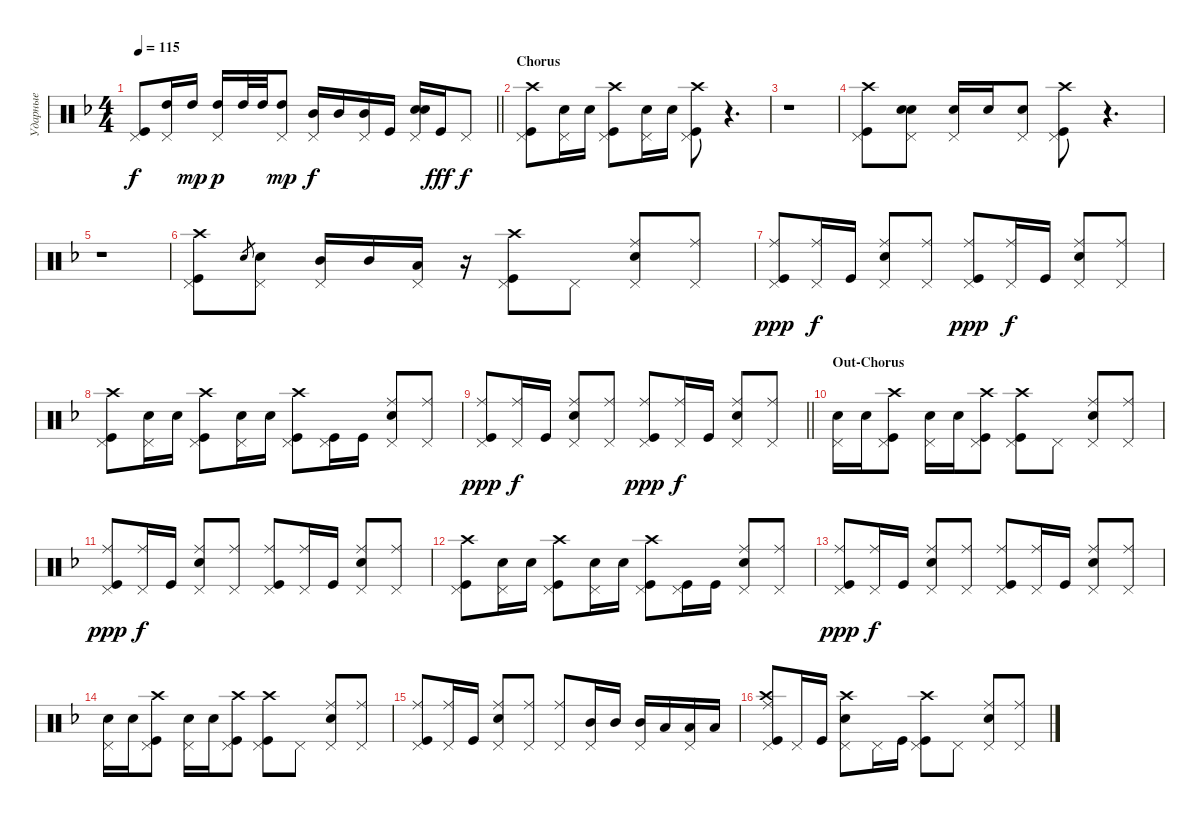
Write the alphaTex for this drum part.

\track ("Ударные" "Ударные") {instrument percussion}
\staff {score}
\articulation defaults
\ts (4 4)
\tempo 115
\clef neutral
\barLineRight lightlight
\ks dminor
("Pedal Hi-Hat (hit)" "Kick (hit)").8{dy f} ("Pedal Hi-Hat (hit)" "High Tom (hit)").16 "High Tom (hit)".16{dy mp} ("Pedal Hi-Hat (hit)" "High Tom (hit)").16{dy p} "High Tom (hit)".32 "High Tom (hit)".32 ("High Tom (hit)" "Pedal Hi-Hat (hit)").8{dy mp} ("Pedal Hi-Hat (hit)" "Mid Tom (hit)").16{dy f} "Mid Tom (hit)".16 ("Mid Tom (hit)" "Pedal Hi-Hat (hit)").16 "Kick (hit)".16 ("Snare (hit) 2" "Snare (hit) 2" "Pedal Hi-Hat (hit)").16{bd 480} "Kick (hit)".16{dy fff} "Pedal Hi-Hat (hit)".8{dy f} |
\section ("" "Chorus")
("Kick (hit)" "Crash high (hit)" "Pedal Hi-Hat (hit)").8 ("Snare (hit) 2" "Pedal Hi-Hat (hit)").16 "Snare (hit) 2".16 ("Kick (hit)" "Crash high (hit)" "Pedal Hi-Hat (hit)").8 ("Snare (hit) 2" "Pedal Hi-Hat (hit)").16 "Snare (hit) 2".16 ("Kick (hit)" "Crash high (hit)" "Pedal Hi-Hat (hit)").8 r.4{d} |
r.1 |
("Pedal Hi-Hat (hit)" "Crash high (hit)" "Kick (hit)").8 ("Pedal Hi-Hat (hit)" "Snare (hit) 2" "Snare (hit) 2").8{bd 480} ("Snare (hit) 2" "Pedal Hi-Hat (hit)").16 "Snare (hit) 2".16 ("Pedal Hi-Hat (hit)" "Snare (hit) 2").8 ("Kick (hit)" "Crash high (hit)" "Pedal Hi-Hat (hit)").8 r.4{d} |
r.1 |
("Kick (hit)" "Crash high (hit)" "Pedal Hi-Hat (hit)").8 "Snare (hit) 2".8{gr} ("Pedal Hi-Hat (hit)" "Snare (hit) 2").8 ("Pedal Hi-Hat (hit)" "Mid Tom (hit)").16 "Mid Tom (hit)".16 ("Low Tom (hit)" "Pedal Hi-Hat (hit)").16 r.16 ("Kick (hit)" "Crash high (hit)" "Pedal Hi-Hat (hit)").8 "Pedal Hi-Hat (hit)".8 ("Snare (hit) 2" "Pedal Hi-Hat (hit)" "Ride (middle)").8 ("Pedal Hi-Hat (hit)" "Ride (middle)").8 |
("Kick (hit)" "Pedal Hi-Hat (hit)" "Ride (middle)").8{dy ppp} ("Ride (middle)" "Pedal Hi-Hat (hit)").16{dy f} "Kick (hit)".16 ("Pedal Hi-Hat (hit)" "Snare (hit) 2" "Ride (middle)").8 ("Ride (middle)" "Pedal Hi-Hat (hit)").8 ("Kick (hit)" "Pedal Hi-Hat (hit)" "Ride (middle)").8{dy ppp} ("Ride (middle)" "Pedal Hi-Hat (hit)").16{dy f} "Kick (hit)".16 ("Pedal Hi-Hat (hit)" "Snare (hit) 2" "Ride (middle)").8 ("Ride (middle)" "Pedal Hi-Hat (hit)").8 |
("Kick (hit)" "Crash high (hit)" "Pedal Hi-Hat (hit)").8 ("Snare (hit) 2" "Pedal Hi-Hat (hit)").16 "Snare (hit) 2".16 ("Kick (hit)" "Crash high (hit)" "Pedal Hi-Hat (hit)").8 ("Snare (hit) 2" "Pedal Hi-Hat (hit)").16 "Snare (hit) 2".16 ("Kick (hit)" "Crash high (hit)" "Pedal Hi-Hat (hit)").8 ("Pedal Hi-Hat (hit)" "Kick (hit)").16 "Kick (hit)".16 ("Snare (hit) 2" "Pedal Hi-Hat (hit)" "Ride (middle)").8 ("Pedal Hi-Hat (hit)" "Ride (middle)").8 |
\barLineRight lightlight
("Kick (hit)" "Pedal Hi-Hat (hit)" "Ride (middle)").8{dy ppp} ("Ride (middle)" "Pedal Hi-Hat (hit)").16{dy f} "Kick (hit)".16 ("Pedal Hi-Hat (hit)" "Snare (hit) 2" "Ride (middle)").8 ("Ride (middle)" "Pedal Hi-Hat (hit)").8 ("Kick (hit)" "Pedal Hi-Hat (hit)" "Ride (middle)").8{dy ppp} ("Ride (middle)" "Pedal Hi-Hat (hit)").16{dy f} "Kick (hit)".16 ("Pedal Hi-Hat (hit)" "Snare (hit) 2" "Ride (middle)").8 ("Ride (middle)" "Pedal Hi-Hat (hit)").8 |
\section ("" "Out-Chorus")
("Snare (hit) 2" "Pedal Hi-Hat (hit)").16 "Snare (hit) 2".16 ("Kick (hit)" "Crash high (hit)" "Pedal Hi-Hat (hit)").8 ("Snare (hit) 2" "Pedal Hi-Hat (hit)").16 "Snare (hit) 2".16 ("Kick (hit)" "Crash high (hit)" "Pedal Hi-Hat (hit)").8 ("Kick (hit)" "Crash high (hit)" "Pedal Hi-Hat (hit)").8 "Pedal Hi-Hat (hit)".8 ("Snare (hit) 2" "Pedal Hi-Hat (hit)" "Ride (middle)").8 ("Ride (middle)" "Pedal Hi-Hat (hit)").8 |
("Kick (hit)" "Pedal Hi-Hat (hit)" "Ride (middle)").8{dy ppp} ("Ride (middle)" "Pedal Hi-Hat (hit)").16{dy f} "Kick (hit)".16 ("Pedal Hi-Hat (hit)" "Snare (hit) 2" "Ride (middle)").8 ("Ride (middle)" "Pedal Hi-Hat (hit)").8 ("Pedal Hi-Hat (hit)" "Kick (hit)" "Ride (middle)").8 ("Ride (middle)" "Pedal Hi-Hat (hit)").16 "Kick (hit)".16 ("Pedal Hi-Hat (hit)" "Snare (hit) 2" "Ride (middle)").8 ("Pedal Hi-Hat (hit)" "Ride (middle)").8 |
("Kick (hit)" "Crash high (hit)" "Pedal Hi-Hat (hit)").8 ("Snare (hit) 2" "Pedal Hi-Hat (hit)").16 "Snare (hit) 2".16 ("Kick (hit)" "Crash high (hit)" "Pedal Hi-Hat (hit)").8 ("Snare (hit) 2" "Pedal Hi-Hat (hit)").16 "Snare (hit) 2".16 ("Kick (hit)" "Crash high (hit)" "Pedal Hi-Hat (hit)").8 ("Pedal Hi-Hat (hit)" "Kick (hit)").16 "Kick (hit)".16 ("Snare (hit) 2" "Pedal Hi-Hat (hit)" "Ride (middle)").8 ("Pedal Hi-Hat (hit)" "Ride (middle)").8 |
("Kick (hit)" "Pedal Hi-Hat (hit)" "Ride (middle)").8{dy ppp} ("Ride (middle)" "Pedal Hi-Hat (hit)").16{dy f} "Kick (hit)".16 ("Pedal Hi-Hat (hit)" "Snare (hit) 2" "Ride (middle)").8 ("Ride (middle)" "Pedal Hi-Hat (hit)").8 ("Pedal Hi-Hat (hit)" "Kick (hit)" "Ride (middle)").8 ("Ride (middle)" "Pedal Hi-Hat (hit)").16 "Kick (hit)".16 ("Pedal Hi-Hat (hit)" "Snare (hit) 2" "Ride (middle)").8 ("Pedal Hi-Hat (hit)" "Ride (middle)").8 |
("Snare (hit) 2" "Pedal Hi-Hat (hit)").16 "Snare (hit) 2".16 ("Kick (hit)" "Crash high (hit)" "Pedal Hi-Hat (hit)").8 ("Snare (hit) 2" "Pedal Hi-Hat (hit)").16 "Snare (hit) 2".16 ("Kick (hit)" "Crash high (hit)" "Pedal Hi-Hat (hit)").8 ("Kick (hit)" "Crash high (hit)" "Pedal Hi-Hat (hit)").8 "Pedal Hi-Hat (hit)".8 ("Snare (hit) 2" "Pedal Hi-Hat (hit)" "Ride (middle)").8 ("Ride (middle)" "Pedal Hi-Hat (hit)").8 |
("Kick (hit)" "Pedal Hi-Hat (hit)" "Ride (middle)").8 ("Ride (middle)" "Pedal Hi-Hat (hit)").16 "Kick (hit)".16 ("Pedal Hi-Hat (hit)" "Snare (hit) 2" "Ride (middle)").8 ("Ride (middle)" "Pedal Hi-Hat (hit)").8 ("Pedal Hi-Hat (hit)" "Ride (middle)").8 ("Mid Tom (hit)" "Pedal Hi-Hat (hit)").16 "Mid Tom (hit)".16 ("Pedal Hi-Hat (hit)" "Mid Tom (hit)").16 "Low Tom (hit)".16 ("Pedal Hi-Hat (hit)" "Low Tom (hit)").16 "Low Tom (hit)".16 |
("Kick (hit)" "Ride (middle)" "Crash high (hit)" "Pedal Hi-Hat (hit)").8 "Pedal Hi-Hat (hit)".16 "Kick (hit)".16 ("Pedal Hi-Hat (hit)" "Crash high (hit)" "Snare (hit) 2").8 "Pedal Hi-Hat (hit)".16 "Kick (hit)".16 ("Kick (hit)" "Crash high (hit)" "Pedal Hi-Hat (hit)").8 "Pedal Hi-Hat (hit)".8 ("Snare (hit) 2" "Pedal Hi-Hat (hit)" "Ride (middle)").8 ("Ride (middle)" "Pedal Hi-Hat (hit)").8
